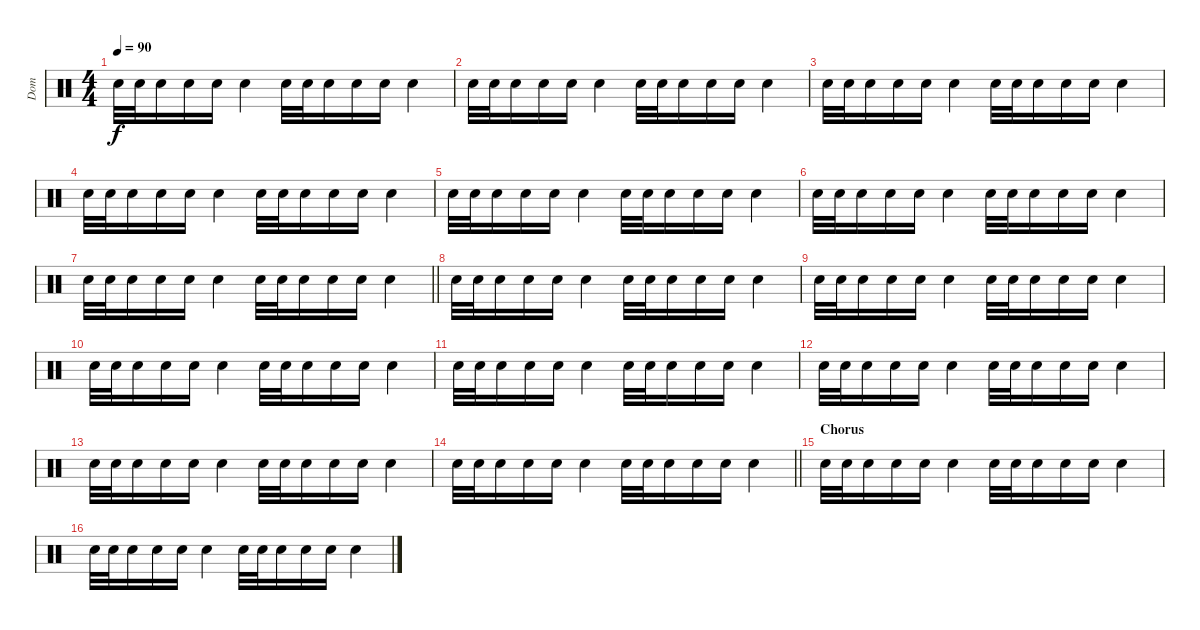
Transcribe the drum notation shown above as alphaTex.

\track ("Dom" "Dom") {instrument percussion}
\staff {score}
\articulation defaults
\ts (4 4)
\tempo 90
\clef neutral
\ks c "Electric Snare (hit)".32{dy f} "Electric Snare (hit)".32 "Electric Snare (hit)".16 "Electric Snare (hit)".16 "Electric Snare (hit)".16 "Electric Snare (hit)".4 "Electric Snare (hit)".32 "Electric Snare (hit)".32 "Electric Snare (hit)".16 "Electric Snare (hit)".16 "Electric Snare (hit)".16 "Electric Snare (hit)".4
|
"Electric Snare (hit)".32 "Electric Snare (hit)".32 "Electric Snare (hit)".16 "Electric Snare (hit)".16 "Electric Snare (hit)".16 "Electric Snare (hit)".4 "Electric Snare (hit)".32 "Electric Snare (hit)".32 "Electric Snare (hit)".16 "Electric Snare (hit)".16 "Electric Snare (hit)".16 "Electric Snare (hit)".4 |
"Electric Snare (hit)".32 "Electric Snare (hit)".32 "Electric Snare (hit)".16 "Electric Snare (hit)".16 "Electric Snare (hit)".16 "Electric Snare (hit)".4 "Electric Snare (hit)".32 "Electric Snare (hit)".32 "Electric Snare (hit)".16 "Electric Snare (hit)".16 "Electric Snare (hit)".16 "Electric Snare (hit)".4 |
"Electric Snare (hit)".32 "Electric Snare (hit)".32 "Electric Snare (hit)".16 "Electric Snare (hit)".16 "Electric Snare (hit)".16 "Electric Snare (hit)".4 "Electric Snare (hit)".32 "Electric Snare (hit)".32 "Electric Snare (hit)".16 "Electric Snare (hit)".16 "Electric Snare (hit)".16 "Electric Snare (hit)".4 |
"Electric Snare (hit)".32 "Electric Snare (hit)".32 "Electric Snare (hit)".16 "Electric Snare (hit)".16 "Electric Snare (hit)".16 "Electric Snare (hit)".4 "Electric Snare (hit)".32 "Electric Snare (hit)".32 "Electric Snare (hit)".16 "Electric Snare (hit)".16 "Electric Snare (hit)".16 "Electric Snare (hit)".4 |
"Electric Snare (hit)".32 "Electric Snare (hit)".32 "Electric Snare (hit)".16 "Electric Snare (hit)".16 "Electric Snare (hit)".16 "Electric Snare (hit)".4 "Electric Snare (hit)".32 "Electric Snare (hit)".32 "Electric Snare (hit)".16 "Electric Snare (hit)".16 "Electric Snare (hit)".16 "Electric Snare (hit)".4 |
\barLineRight lightlight "Electric Snare (hit)".32 "Electric Snare (hit)".32 "Electric Snare (hit)".16 "Electric Snare (hit)".16 "Electric Snare (hit)".16 "Electric Snare (hit)".4 "Electric Snare (hit)".32 "Electric Snare (hit)".32 "Electric Snare (hit)".16 "Electric Snare (hit)".16 "Electric Snare (hit)".16 "Electric Snare (hit)".4
|
"Electric Snare (hit)".32 "Electric Snare (hit)".32 "Electric Snare (hit)".16 "Electric Snare (hit)".16 "Electric Snare (hit)".16 "Electric Snare (hit)".4 "Electric Snare (hit)".32 "Electric Snare (hit)".32 "Electric Snare (hit)".16 "Electric Snare (hit)".16 "Electric Snare (hit)".16 "Electric Snare (hit)".4 |
"Electric Snare (hit)".32 "Electric Snare (hit)".32 "Electric Snare (hit)".16 "Electric Snare (hit)".16 "Electric Snare (hit)".16 "Electric Snare (hit)".4 "Electric Snare (hit)".32 "Electric Snare (hit)".32 "Electric Snare (hit)".16 "Electric Snare (hit)".16 "Electric Snare (hit)".16 "Electric Snare (hit)".4 |
"Electric Snare (hit)".32 "Electric Snare (hit)".32 "Electric Snare (hit)".16 "Electric Snare (hit)".16 "Electric Snare (hit)".16 "Electric Snare (hit)".4 "Electric Snare (hit)".32 "Electric Snare (hit)".32 "Electric Snare (hit)".16 "Electric Snare (hit)".16 "Electric Snare (hit)".16 "Electric Snare (hit)".4 |
"Electric Snare (hit)".32 "Electric Snare (hit)".32 "Electric Snare (hit)".16 "Electric Snare (hit)".16 "Electric Snare (hit)".16 "Electric Snare (hit)".4 "Electric Snare (hit)".32 "Electric Snare (hit)".32 "Electric Snare (hit)".16 "Electric Snare (hit)".16 "Electric Snare (hit)".16 "Electric Snare (hit)".4 |
"Electric Snare (hit)".32 "Electric Snare (hit)".32 "Electric Snare (hit)".16 "Electric Snare (hit)".16 "Electric Snare (hit)".16 "Electric Snare (hit)".4 "Electric Snare (hit)".32 "Electric Snare (hit)".32 "Electric Snare (hit)".16 "Electric Snare (hit)".16 "Electric Snare (hit)".16 "Electric Snare (hit)".4 |
"Electric Snare (hit)".32 "Electric Snare (hit)".32 "Electric Snare (hit)".16 "Electric Snare (hit)".16 "Electric Snare (hit)".16 "Electric Snare (hit)".4 "Electric Snare (hit)".32 "Electric Snare (hit)".32 "Electric Snare (hit)".16 "Electric Snare (hit)".16 "Electric Snare (hit)".16 "Electric Snare (hit)".4 |
\barLineRight lightlight "Electric Snare (hit)".32 "Electric Snare (hit)".32 "Electric Snare (hit)".16 "Electric Snare (hit)".16 "Electric Snare (hit)".16 "Electric Snare (hit)".4 "Electric Snare (hit)".32 "Electric Snare (hit)".32 "Electric Snare (hit)".16 "Electric Snare (hit)".16 "Electric Snare (hit)".16 "Electric Snare (hit)".4
|
\section ("" "Chorus")
"Electric Snare (hit)".32 "Electric Snare (hit)".32 "Electric Snare (hit)".16 "Electric Snare (hit)".16 "Electric Snare (hit)".16 "Electric Snare (hit)".4 "Electric Snare (hit)".32 "Electric Snare (hit)".32 "Electric Snare (hit)".16 "Electric Snare (hit)".16 "Electric Snare (hit)".16 "Electric Snare (hit)".4 |
"Electric Snare (hit)".32 "Electric Snare (hit)".32 "Electric Snare (hit)".16 "Electric Snare (hit)".16 "Electric Snare (hit)".16 "Electric Snare (hit)".4 "Electric Snare (hit)".32 "Electric Snare (hit)".32 "Electric Snare (hit)".16 "Electric Snare (hit)".16 "Electric Snare (hit)".16 "Electric Snare (hit)".4
